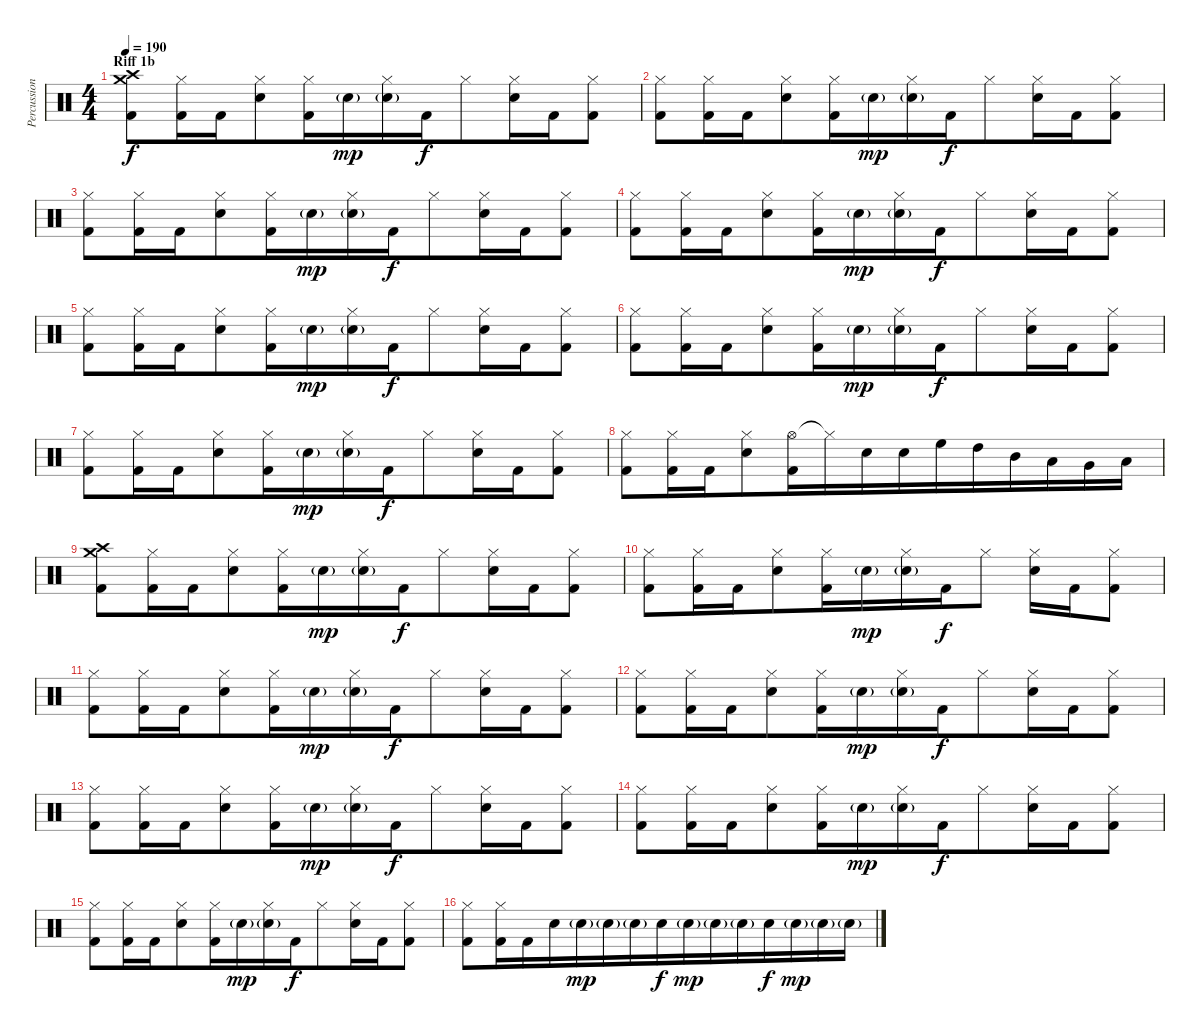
\track ("Percussion" "Percussion") {instrument percussion}
\staff {score}
\articulation defaults
\ts (4 4)
\section ("" "Riff 1b")
\tempo 190
\clef neutral
\ks c
("Crash medium (hit)" "Crash high (hit)" "Kick (hit) 2").8{dy f beam merge} ("Hi-Hat (closed)" "Kick (hit) 2").16{beam merge} "Kick (hit) 2".16{beam merge} ("Hi-Hat (closed)" "Electric Snare (hit)").8{beam merge} ("Hi-Hat (closed)" "Kick (hit) 2").16{beam merge} "Electric Snare (hit)"{g}.16{dy mp beam merge} ("Hi-Hat (closed)" "Electric Snare (hit)"{g}).16{beam merge} "Kick (hit) 2".16{dy f beam merge} "Hi-Hat (closed)".8{beam merge} ("Hi-Hat (closed)" "Electric Snare (hit)").16{beam merge} "Kick (hit) 2".16{beam merge} ("Hi-Hat (closed)" "Kick (hit) 2").8 |
("Hi-Hat (closed)" "Kick (hit) 2").8{beam merge} ("Hi-Hat (closed)" "Kick (hit) 2").16{beam merge} "Kick (hit) 2".16{beam merge} ("Hi-Hat (closed)" "Electric Snare (hit)").8{beam merge} ("Hi-Hat (closed)" "Kick (hit) 2").16{beam merge} "Electric Snare (hit)"{g}.16{dy mp beam merge} ("Hi-Hat (closed)" "Electric Snare (hit)"{g}).16{beam merge} "Kick (hit) 2".16{dy f beam merge} "Hi-Hat (closed)".8{beam merge} ("Hi-Hat (closed)" "Electric Snare (hit)").16{beam merge} "Kick (hit) 2".16{beam merge} ("Hi-Hat (closed)" "Kick (hit) 2").8 |
("Hi-Hat (closed)" "Kick (hit) 2").8{beam merge} ("Hi-Hat (closed)" "Kick (hit) 2").16{beam merge} "Kick (hit) 2".16{beam merge} ("Hi-Hat (closed)" "Electric Snare (hit)").8{beam merge} ("Hi-Hat (closed)" "Kick (hit) 2").16{beam merge} "Electric Snare (hit)"{g}.16{dy mp beam merge} ("Hi-Hat (closed)" "Electric Snare (hit)"{g}).16{beam merge} "Kick (hit) 2".16{dy f beam merge} "Hi-Hat (closed)".8{beam merge} ("Hi-Hat (closed)" "Electric Snare (hit)").16{beam merge} "Kick (hit) 2".16{beam merge} ("Hi-Hat (closed)" "Kick (hit) 2").8 |
("Hi-Hat (closed)" "Kick (hit) 2").8{beam merge} ("Hi-Hat (closed)" "Kick (hit) 2").16{beam merge} "Kick (hit) 2".16{beam merge} ("Hi-Hat (closed)" "Electric Snare (hit)").8 ("Hi-Hat (closed)" "Kick (hit) 2").16{beam merge} "Electric Snare (hit)"{g}.16{dy mp beam merge} ("Hi-Hat (closed)" "Electric Snare (hit)"{g}).16{beam merge} "Kick (hit) 2".16{dy f beam merge} "Hi-Hat (closed)".8{beam merge} ("Hi-Hat (closed)" "Electric Snare (hit)").16{beam merge} "Kick (hit) 2".16{beam merge} ("Hi-Hat (closed)" "Kick (hit) 2").8 |
("Hi-Hat (closed)" "Kick (hit) 2").8{beam merge} ("Hi-Hat (closed)" "Kick (hit) 2").16{beam merge} "Kick (hit) 2".16{beam merge} ("Hi-Hat (closed)" "Electric Snare (hit)").8{beam merge} ("Hi-Hat (closed)" "Kick (hit) 2").16{beam merge} "Electric Snare (hit)"{g}.16{dy mp beam merge} ("Hi-Hat (closed)" "Electric Snare (hit)"{g}).16 "Kick (hit) 2".16{dy f beam merge} "Hi-Hat (closed)".8{beam merge} ("Hi-Hat (closed)" "Electric Snare (hit)").16{beam merge} "Kick (hit) 2".16{beam merge} ("Hi-Hat (closed)" "Kick (hit) 2").8 |
("Hi-Hat (closed)" "Kick (hit) 2").8{beam merge} ("Hi-Hat (closed)" "Kick (hit) 2").16{beam merge} "Kick (hit) 2".16{beam merge} ("Hi-Hat (closed)" "Electric Snare (hit)").8 ("Hi-Hat (closed)" "Kick (hit) 2").16{beam merge} "Electric Snare (hit)"{g}.16{dy mp beam merge} ("Hi-Hat (closed)" "Electric Snare (hit)"{g}).16{beam merge} "Kick (hit) 2".16{dy f beam merge} "Hi-Hat (closed)".8{beam merge} ("Hi-Hat (closed)" "Electric Snare (hit)").16{beam merge} "Kick (hit) 2".16 ("Hi-Hat (closed)" "Kick (hit) 2").8 |
("Hi-Hat (closed)" "Kick (hit) 2").8{beam merge} ("Hi-Hat (closed)" "Kick (hit) 2").16{beam merge} "Kick (hit) 2".16{beam merge} ("Hi-Hat (closed)" "Electric Snare (hit)").8{beam merge} ("Hi-Hat (closed)" "Kick (hit) 2").16{beam merge} "Electric Snare (hit)"{g}.16{dy mp beam merge} ("Hi-Hat (closed)" "Electric Snare (hit)"{g}).16{beam merge} "Kick (hit) 2".16{dy f beam merge} "Hi-Hat (closed)".8{beam merge} ("Hi-Hat (closed)" "Electric Snare (hit)").16 "Kick (hit) 2".16{beam merge} ("Hi-Hat (closed)" "Kick (hit) 2").8 |
("Hi-Hat (closed)" "Kick (hit) 2").8{beam merge} ("Hi-Hat (closed)" "Kick (hit) 2").16 "Kick (hit) 2".16{beam merge} ("Hi-Hat (closed)" "Electric Snare (hit)").8{beam merge} ("Hi-Hat (open)" "Kick (hit) 2").16{beam merge} "Hi-Hat (closed)"{t}.16{beam merge} "Electric Snare (hit)".16{beam merge} "Electric Snare (hit)".16 "High Floor Tom (hit)".16{beam merge} "High Tom (hit)".16{beam merge} "Mid Tom (hit)".16{beam merge} "Low Tom (hit)".16{beam merge} "Very Low Tom (hit)".16{beam merge} "Low Floor Tom (hit)".16 |
("Crash medium (hit)" "Crash high (hit)" "Kick (hit) 2").8{beam merge} ("Hi-Hat (closed)" "Kick (hit) 2").16{beam merge} "Kick (hit) 2".16{beam merge} ("Hi-Hat (closed)" "Electric Snare (hit)").8{beam merge} ("Hi-Hat (closed)" "Kick (hit) 2").16{beam merge} "Electric Snare (hit)"{g}.16{dy mp beam merge} ("Hi-Hat (closed)" "Electric Snare (hit)"{g}).16{beam merge} "Kick (hit) 2".16{dy f beam merge} "Hi-Hat (closed)".8{beam merge} ("Hi-Hat (closed)" "Electric Snare (hit)").16{beam merge} "Kick (hit) 2".16 ("Hi-Hat (closed)" "Kick (hit) 2").8 |
("Hi-Hat (closed)" "Kick (hit) 2").8{beam merge} ("Hi-Hat (closed)" "Kick (hit) 2").16{beam merge} "Kick (hit) 2".16{beam merge} ("Hi-Hat (closed)" "Electric Snare (hit)").8{beam merge} ("Hi-Hat (closed)" "Kick (hit) 2").16{beam merge} "Electric Snare (hit)"{g}.16{dy mp beam merge} ("Hi-Hat (closed)" "Electric Snare (hit)"{g}).16{beam merge} "Kick (hit) 2".16{dy f beam merge} "Hi-Hat (closed)".8 ("Hi-Hat (closed)" "Electric Snare (hit)").16 "Kick (hit) 2".16{beam merge} ("Hi-Hat (closed)" "Kick (hit) 2").8 |
("Hi-Hat (closed)" "Kick (hit) 2").8{beam merge} ("Hi-Hat (closed)" "Kick (hit) 2").16{beam merge} "Kick (hit) 2".16{beam merge} ("Hi-Hat (closed)" "Electric Snare (hit)").8{beam merge} ("Hi-Hat (closed)" "Kick (hit) 2").16{beam merge} "Electric Snare (hit)"{g}.16{dy mp beam merge} ("Hi-Hat (closed)" "Electric Snare (hit)"{g}).16{beam merge} "Kick (hit) 2".16{dy f beam merge} "Hi-Hat (closed)".8{beam merge} ("Hi-Hat (closed)" "Electric Snare (hit)").16{beam merge} "Kick (hit) 2".16{beam merge} ("Hi-Hat (closed)" "Kick (hit) 2").8 |
("Hi-Hat (closed)" "Kick (hit) 2").8{beam merge} ("Hi-Hat (closed)" "Kick (hit) 2").16 "Kick (hit) 2".16{beam merge} ("Hi-Hat (closed)" "Electric Snare (hit)").8{beam merge} ("Hi-Hat (closed)" "Kick (hit) 2").16{beam merge} "Electric Snare (hit)"{g}.16{dy mp beam merge} ("Hi-Hat (closed)" "Electric Snare (hit)"{g}).16 "Kick (hit) 2".16{dy f} "Hi-Hat (closed)".8{beam merge} ("Hi-Hat (closed)" "Electric Snare (hit)").16{beam merge} "Kick (hit) 2".16{beam merge} ("Hi-Hat (closed)" "Kick (hit) 2").8 |
("Hi-Hat (closed)" "Kick (hit) 2").8{beam merge} ("Hi-Hat (closed)" "Kick (hit) 2").16{beam merge} "Kick (hit) 2".16{beam merge} ("Hi-Hat (closed)" "Electric Snare (hit)").8{beam merge} ("Hi-Hat (closed)" "Kick (hit) 2").16{beam merge} "Electric Snare (hit)"{g}.16{dy mp beam merge} ("Hi-Hat (closed)" "Electric Snare (hit)"{g}).16{beam merge} "Kick (hit) 2".16{dy f beam merge} "Hi-Hat (closed)".8{beam merge} ("Hi-Hat (closed)" "Electric Snare (hit)").16{beam merge} "Kick (hit) 2".16{beam merge} ("Hi-Hat (closed)" "Kick (hit) 2").8 |
("Hi-Hat (closed)" "Kick (hit) 2").8{beam merge} ("Hi-Hat (closed)" "Kick (hit) 2").16{beam merge} "Kick (hit) 2".16{beam merge} ("Hi-Hat (closed)" "Electric Snare (hit)").8{beam merge} ("Hi-Hat (closed)" "Kick (hit) 2").16{beam merge} "Electric Snare (hit)"{g}.16{dy mp beam merge} ("Hi-Hat (closed)" "Electric Snare (hit)"{g}).16{beam merge} "Kick (hit) 2".16{dy f beam merge} "Hi-Hat (closed)".8{beam merge} ("Hi-Hat (closed)" "Electric Snare (hit)").16{beam merge} "Kick (hit) 2".16{beam merge} ("Hi-Hat (closed)" "Kick (hit) 2").8 |
("Hi-Hat (closed)" "Kick (hit) 2").8{beam merge} ("Hi-Hat (closed)" "Kick (hit) 2").16{beam merge} "Kick (hit) 2".16{beam merge} ("Hi-Hat (closed)" "Electric Snare (hit)").8{beam merge} ("Hi-Hat (closed)" "Kick (hit) 2").16{beam merge} "Electric Snare (hit)"{g}.16{dy mp beam merge} ("Hi-Hat (closed)" "Electric Snare (hit)"{g}).16{beam merge} "Kick (hit) 2".16{dy f beam merge} "Hi-Hat (closed)".8{beam merge} ("Hi-Hat (closed)" "Electric Snare (hit)").16{beam merge} "Kick (hit) 2".16{beam merge} ("Hi-Hat (closed)" "Kick (hit) 2").8 |
("Hi-Hat (closed)" "Kick (hit) 2").8{beam merge} ("Hi-Hat (closed)" "Kick (hit) 2").16{beam merge} "Kick (hit) 2".16{beam merge} "Electric Snare (hit)".16{beam merge} "Electric Snare (hit)"{g}.16{dy mp beam merge} "Electric Snare (hit)"{g}.16{beam merge} "Electric Snare (hit)"{g}.16{beam merge} "Electric Snare (hit)".16{dy f beam merge} "Electric Snare (hit)"{g}.16{dy mp beam merge} "Electric Snare (hit)"{g}.16 "Electric Snare (hit)"{g}.16{beam merge} "Electric Snare (hit)".16{dy f beam merge} "Electric Snare (hit)"{g}.16{dy mp beam merge} "Electric Snare (hit)"{g}.16{beam merge} "Electric Snare (hit)"{g}.16
